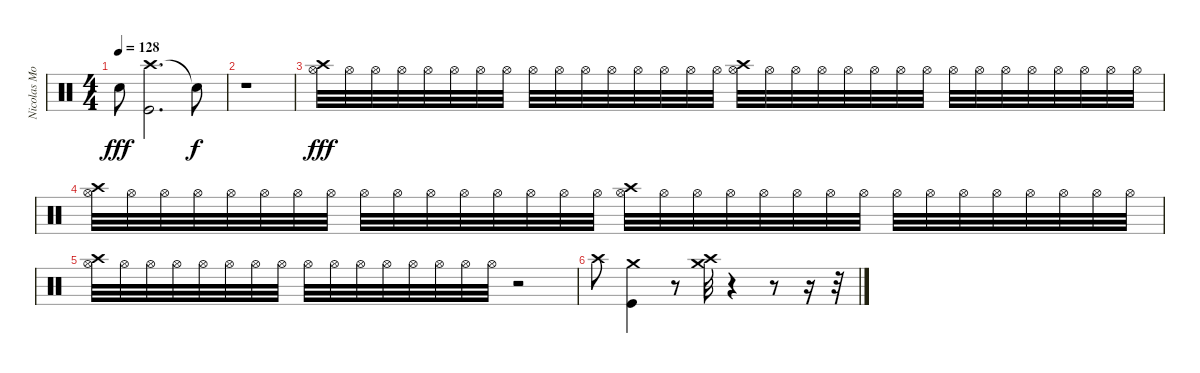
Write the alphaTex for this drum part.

\track ("Nicolas Mosquera" "Nicolas Mo") {mute instrument percussion}
\staff {score}
\articulation defaults
\ts (4 4)
\tempo 128
\clef neutral
\ks c "Snare (hit) 2".8{dy fff}
("Crash high (hit)" "Kick (hit)").2{d} "Snare (hit)"{t}.8{dy f} |
r.1 |
("Crash high (hit)" "Hi-Hat (open)").32{dy fff} "Hi-Hat (open)".32 "Hi-Hat (open)".32 "Hi-Hat (open)".32 "Hi-Hat (open)".32 "Hi-Hat (open)".32 "Hi-Hat (open)".32 "Hi-Hat (open)".32 "Hi-Hat (open)".32 "Hi-Hat (open)".32 "Hi-Hat (open)".32 "Hi-Hat (open)".32 "Hi-Hat (open)".32 "Hi-Hat (open)".32 "Hi-Hat (open)".32 "Hi-Hat (open)".32 ("Crash high (hit)" "Hi-Hat (open)").32 "Hi-Hat (open)".32 "Hi-Hat (open)".32 "Hi-Hat (open)".32 "Hi-Hat (open)".32 "Hi-Hat (open)".32 "Hi-Hat (open)".32 "Hi-Hat (open)".32 "Hi-Hat (open)".32 "Hi-Hat (open)".32 "Hi-Hat (open)".32 "Hi-Hat (open)".32 "Hi-Hat (open)".32 "Hi-Hat (open)".32 "Hi-Hat (open)".32 "Hi-Hat (open)".32 |
("Crash high (hit)" "Hi-Hat (open)").32 "Hi-Hat (open)".32 "Hi-Hat (open)".32 "Hi-Hat (open)".32 "Hi-Hat (open)".32 "Hi-Hat (open)".32 "Hi-Hat (open)".32 "Hi-Hat (open)".32 "Hi-Hat (open)".32 "Hi-Hat (open)".32 "Hi-Hat (open)".32 "Hi-Hat (open)".32 "Hi-Hat (open)".32 "Hi-Hat (open)".32 "Hi-Hat (open)".32 "Hi-Hat (open)".32 ("Crash high (hit)" "Hi-Hat (open)").32 "Hi-Hat (open)".32 "Hi-Hat (open)".32 "Hi-Hat (open)".32 "Hi-Hat (open)".32 "Hi-Hat (open)".32 "Hi-Hat (open)".32 "Hi-Hat (open)".32 "Hi-Hat (open)".32 "Hi-Hat (open)".32 "Hi-Hat (open)".32 "Hi-Hat (open)".32 "Hi-Hat (open)".32 "Hi-Hat (open)".32 "Hi-Hat (open)".32 "Hi-Hat (open)".32 |
("Crash high (hit)" "Hi-Hat (open)").32 "Hi-Hat (open)".32 "Hi-Hat (open)".32 "Hi-Hat (open)".32 "Hi-Hat (open)".32 "Hi-Hat (open)".32 "Hi-Hat (open)".32 "Hi-Hat (open)".32 "Hi-Hat (open)".32 "Hi-Hat (open)".32 "Hi-Hat (open)".32 "Hi-Hat (open)".32 "Hi-Hat (open)".32 "Hi-Hat (open)".32 "Hi-Hat (open)".32 "Hi-Hat (open)".32 r.2 |
"Crash high (hit)".8 ("Kick (hit)" "Crash medium (hit)").4 r.8 ("Crash medium (hit)" "Crash high (hit)").32 r.4 r.8 r.16 r.32
